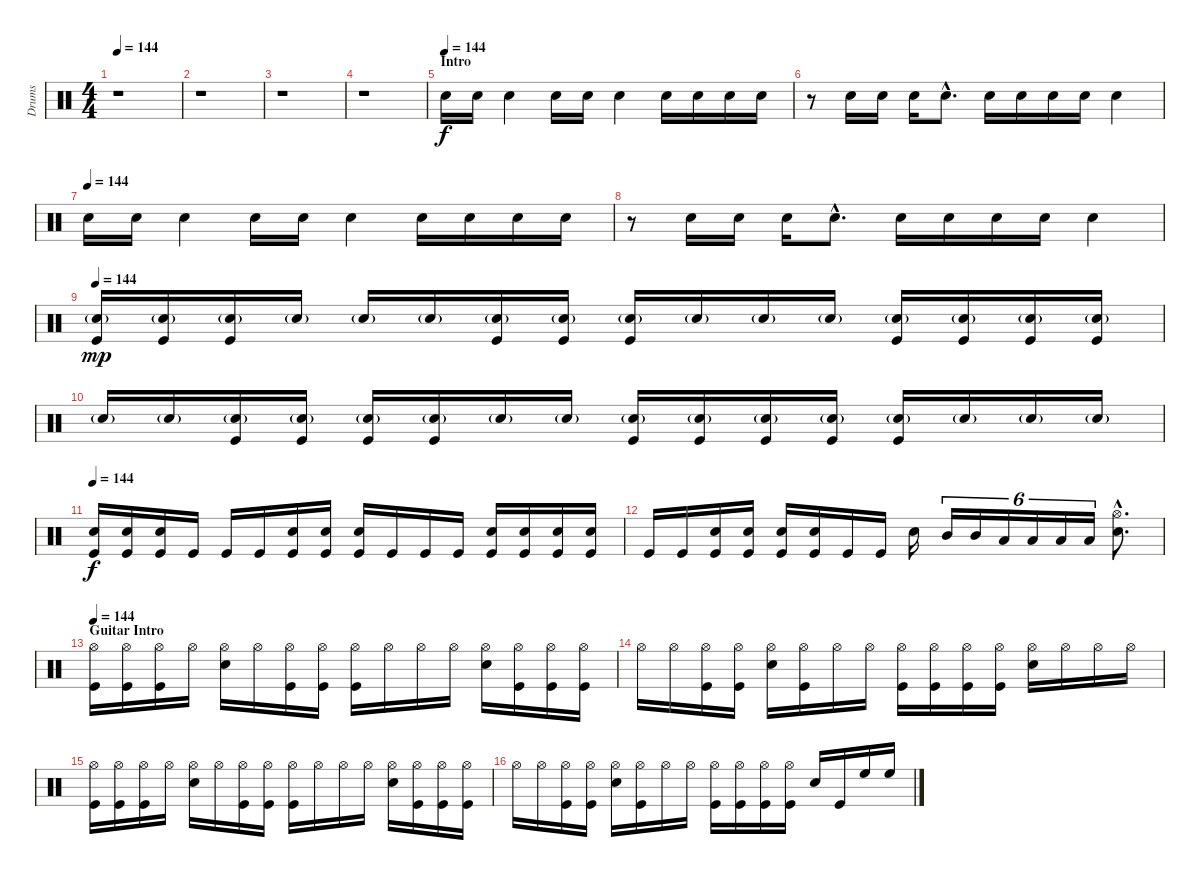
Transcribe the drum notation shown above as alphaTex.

\track ("Drums" "Drums") {instrument percussion}
\staff {score}
\articulation defaults
\ts (4 4)
\tempo 144
\clef neutral
\ks c
r.1{dy f} |
r.1 |
r.1 |
r.1 |
\section ("" "Intro")
\tempo (144)
"Electric Snare (hit)".16 "Electric Snare (hit)".16 "Electric Snare (hit)".4 "Electric Snare (hit)".16 "Electric Snare (hit)".16 "Electric Snare (hit)".4 "Electric Snare (hit)".16 "Electric Snare (hit)".16 "Electric Snare (hit)".16 "Electric Snare (hit)".16 |
r.8 "Electric Snare (hit)".16 "Electric Snare (hit)".16 "Electric Snare (hit)".16 "Electric Snare (hit)"{hac}.8{d} "Electric Snare (hit)".16 "Electric Snare (hit)".16 "Electric Snare (hit)".16 "Electric Snare (hit)".16 "Electric Snare (hit)".4 |
\tempo (144)
"Electric Snare (hit)".16 "Electric Snare (hit)".16 "Electric Snare (hit)".4 "Electric Snare (hit)".16 "Electric Snare (hit)".16 "Electric Snare (hit)".4 "Electric Snare (hit)".16 "Electric Snare (hit)".16 "Electric Snare (hit)".16 "Electric Snare (hit)".16 |
r.8 "Electric Snare (hit)".16 "Electric Snare (hit)".16 "Electric Snare (hit)".16 "Electric Snare (hit)"{hac}.8{d} "Electric Snare (hit)".16 "Electric Snare (hit)".16 "Electric Snare (hit)".16 "Electric Snare (hit)".16 "Electric Snare (hit)".4 |
\tempo 144
("Snare (hit) 2"{g} "Kick (hit)").16{dy mp} ("Snare (hit) 2"{g} "Kick (hit)").16 ("Snare (hit) 2"{g} "Kick (hit)").16 "Snare (hit) 2"{g}.16 "Snare (hit) 2"{g}.16 "Snare (hit) 2"{g}.16 ("Snare (hit) 2"{g} "Kick (hit)").16 ("Snare (hit) 2"{g} "Kick (hit)").16 ("Snare (hit) 2"{g} "Kick (hit)").16 "Snare (hit) 2"{g}.16 "Snare (hit) 2"{g}.16 "Snare (hit) 2"{g}.16 ("Snare (hit) 2"{g} "Kick (hit)").16 ("Snare (hit) 2"{g} "Kick (hit)").16 ("Snare (hit) 2"{g} "Kick (hit)").16 ("Snare (hit) 2"{g} "Kick (hit)").16 |
"Snare (hit) 2"{g}.16 "Snare (hit) 2"{g}.16 ("Snare (hit) 2"{g} "Kick (hit)").16 ("Snare (hit) 2"{g} "Kick (hit)").16 ("Snare (hit) 2"{g} "Kick (hit)").16 ("Snare (hit) 2"{g} "Kick (hit)").16 "Snare (hit) 2"{g}.16 "Snare (hit) 2"{g}.16 ("Snare (hit) 2"{g} "Kick (hit)").16 ("Snare (hit) 2"{g} "Kick (hit)").16 ("Snare (hit) 2"{g} "Kick (hit)").16 ("Snare (hit) 2"{g} "Kick (hit)").16 ("Snare (hit) 2"{g} "Kick (hit)").16 "Snare (hit) 2"{g}.16 "Snare (hit) 2"{g}.16 "Snare (hit) 2"{g}.16 |
\tempo 144
("Electric Snare (hit)" "Kick (hit)").16{dy f} ("Electric Snare (hit)" "Kick (hit)").16 ("Electric Snare (hit)" "Kick (hit)").16 "Kick (hit)".16 "Kick (hit)".16 "Kick (hit)".16 ("Electric Snare (hit)" "Kick (hit)").16 ("Electric Snare (hit)" "Kick (hit)").16 ("Electric Snare (hit)" "Kick (hit)").16 "Kick (hit)".16 "Kick (hit)".16 "Kick (hit)".16 ("Electric Snare (hit)" "Kick (hit)").16 ("Electric Snare (hit)" "Kick (hit)").16 ("Electric Snare (hit)" "Kick (hit)").16 ("Electric Snare (hit)" "Kick (hit)").16 |
"Kick (hit)".16 "Kick (hit)".16 ("Electric Snare (hit)" "Kick (hit)").16 ("Electric Snare (hit)" "Kick (hit)").16 ("Electric Snare (hit)" "Kick (hit)").16 ("Electric Snare (hit)" "Kick (hit)").16 "Kick (hit)".16 "Kick (hit)".16 "Electric Snare (hit)".16 "Mid Tom (hit)".16{tu (6 4)} "Mid Tom (hit)".16{tu (6 4)} "Low Tom (hit)".16{tu (6 4)} "Low Tom (hit)".16{tu (6 4)} "Low Tom (hit)".16{tu (6 4)} "Low Tom (hit)".16{tu (6 4)} ("Hi-Hat (open)"{hac} "Electric Snare (hit)"{hac}).8{d} |
\section ("" "Guitar Intro")
\tempo 144
("Hi-Hat (open)" "Kick (hit)").16 ("Hi-Hat (open)" "Kick (hit)").16 ("Hi-Hat (open)" "Kick (hit)").16 "Hi-Hat (open)".16 ("Hi-Hat (open)" "Electric Snare (hit)").16 "Hi-Hat (open)".16 ("Hi-Hat (open)" "Kick (hit)").16 ("Hi-Hat (open)" "Kick (hit)").16 ("Hi-Hat (open)" "Kick (hit)").16 "Hi-Hat (open)".16 "Hi-Hat (open)".16 "Hi-Hat (open)".16 ("Hi-Hat (open)" "Electric Snare (hit)").16 ("Hi-Hat (open)" "Kick (hit)").16 ("Hi-Hat (open)" "Kick (hit)").16 ("Hi-Hat (open)" "Kick (hit)").16 |
"Hi-Hat (open)".16 "Hi-Hat (open)".16 ("Hi-Hat (open)" "Kick (hit)").16 ("Hi-Hat (open)" "Kick (hit)").16 ("Hi-Hat (open)" "Electric Snare (hit)").16 ("Hi-Hat (open)" "Kick (hit)").16 "Hi-Hat (open)".16 "Hi-Hat (open)".16 ("Hi-Hat (open)" "Kick (hit)").16 ("Hi-Hat (open)" "Kick (hit)").16 ("Hi-Hat (open)" "Kick (hit)").16 ("Hi-Hat (open)" "Kick (hit)").16 ("Hi-Hat (open)" "Electric Snare (hit)").16 "Hi-Hat (open)".16 "Hi-Hat (open)".16 "Hi-Hat (open)".16 |
("Hi-Hat (open)" "Kick (hit)").16 ("Hi-Hat (open)" "Kick (hit)").16 ("Hi-Hat (open)" "Kick (hit)").16 "Hi-Hat (open)".16 ("Hi-Hat (open)" "Electric Snare (hit)").16 "Hi-Hat (open)".16 ("Hi-Hat (open)" "Kick (hit)").16 ("Hi-Hat (open)" "Kick (hit)").16 ("Hi-Hat (open)" "Kick (hit)").16 "Hi-Hat (open)".16 "Hi-Hat (open)".16 "Hi-Hat (open)".16 ("Hi-Hat (open)" "Electric Snare (hit)").16 ("Hi-Hat (open)" "Kick (hit)").16 ("Hi-Hat (open)" "Kick (hit)").16 ("Hi-Hat (open)" "Kick (hit)").16 |
"Hi-Hat (open)".16 "Hi-Hat (open)".16 ("Hi-Hat (open)" "Kick (hit)").16 ("Hi-Hat (open)" "Kick (hit)").16 ("Hi-Hat (open)" "Electric Snare (hit)").16 ("Hi-Hat (open)" "Kick (hit)").16 "Hi-Hat (open)".16 "Hi-Hat (open)".16 ("Hi-Hat (open)" "Kick (hit)").16 ("Hi-Hat (open)" "Kick (hit)").16 ("Hi-Hat (open)" "Kick (hit)").16 ("Hi-Hat (open)" "Kick (hit)").16 "Electric Snare (hit)".16 "Kick (hit)".16 "High Floor Tom (hit)".16 "High Floor Tom (hit)".16
